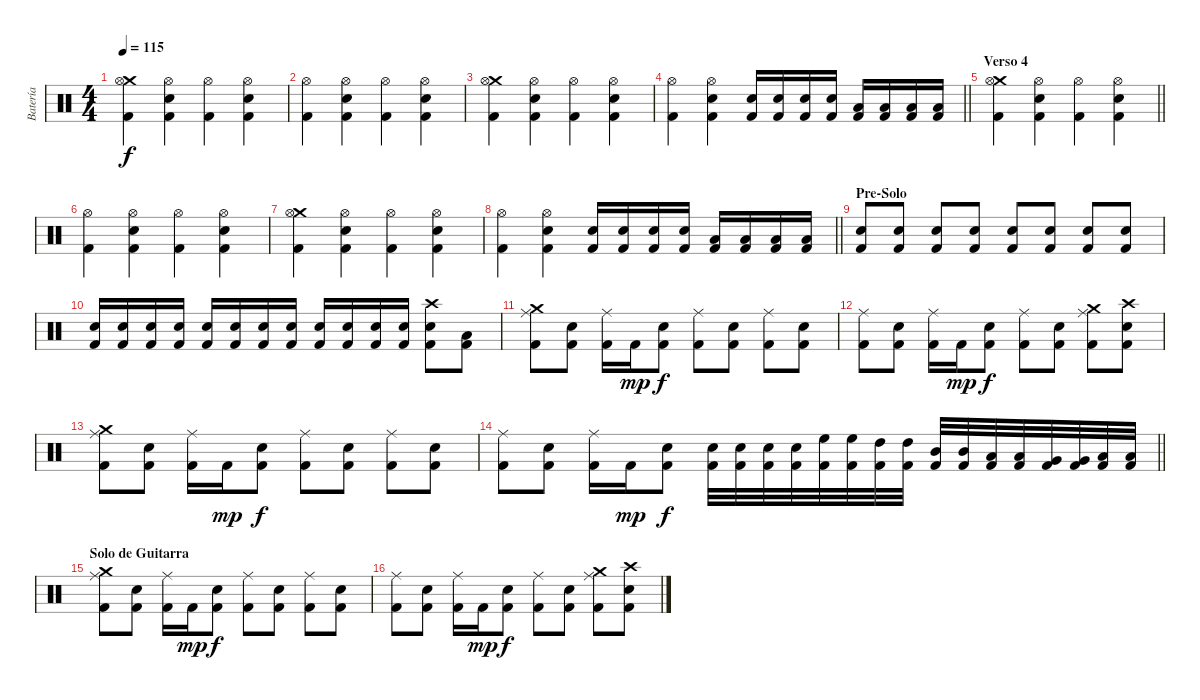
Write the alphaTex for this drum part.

\track ("Batería" "Batería") {instrument percussion}
\staff {score}
\articulation defaults
\ts (4 4)
\tempo 115
\clef neutral
\ks c
("Crash medium (hit)" "Hi-Hat (open)" "Kick (hit) 2").4{dy f} ("Hi-Hat (open)" "Snare (hit) 2" "Kick (hit) 2").4 ("Hi-Hat (open)" "Kick (hit) 2").4 ("Hi-Hat (open)" "Snare (hit) 2" "Kick (hit) 2").4 |
("Hi-Hat (open)" "Kick (hit) 2").4 ("Hi-Hat (open)" "Snare (hit) 2" "Kick (hit) 2").4 ("Hi-Hat (open)" "Kick (hit) 2").4 ("Hi-Hat (open)" "Snare (hit) 2" "Kick (hit) 2").4 |
("Crash medium (hit)" "Hi-Hat (open)" "Kick (hit) 2").4 ("Hi-Hat (open)" "Snare (hit) 2" "Kick (hit) 2").4 ("Hi-Hat (open)" "Kick (hit) 2").4 ("Hi-Hat (open)" "Snare (hit) 2" "Kick (hit) 2").4 |
\barLineRight lightlight
("Hi-Hat (open)" "Kick (hit) 2").4 ("Hi-Hat (open)" "Snare (hit) 2" "Kick (hit) 2").4 ("Snare (hit) 2" "Kick (hit) 2").16 ("Snare (hit) 2" "Kick (hit) 2").16 ("Snare (hit) 2" "Kick (hit) 2").16 ("Snare (hit) 2" "Kick (hit) 2").16 ("Low Tom (hit)" "Kick (hit) 2").16 ("Low Tom (hit)" "Kick (hit) 2").16 ("Low Tom (hit)" "Kick (hit) 2").16 ("Low Tom (hit)" "Kick (hit) 2").16 |
\section ("" "Verso 4")
\barLineRight lightlight
("Crash medium (hit)" "Hi-Hat (open)" "Kick (hit) 2").4 ("Hi-Hat (open)" "Snare (hit) 2" "Kick (hit) 2").4 ("Hi-Hat (open)" "Kick (hit) 2").4 ("Hi-Hat (open)" "Snare (hit) 2" "Kick (hit) 2").4 |
("Hi-Hat (open)" "Kick (hit) 2").4 ("Hi-Hat (open)" "Snare (hit) 2" "Kick (hit) 2").4 ("Hi-Hat (open)" "Kick (hit) 2").4 ("Hi-Hat (open)" "Snare (hit) 2" "Kick (hit) 2").4 |
("Crash medium (hit)" "Hi-Hat (open)" "Kick (hit) 2").4 ("Hi-Hat (open)" "Snare (hit) 2" "Kick (hit) 2").4 ("Hi-Hat (open)" "Kick (hit) 2").4 ("Hi-Hat (open)" "Snare (hit) 2" "Kick (hit) 2").4 |
\barLineRight lightlight
("Hi-Hat (open)" "Kick (hit) 2").4 ("Hi-Hat (open)" "Snare (hit) 2" "Kick (hit) 2").4 ("Snare (hit) 2" "Kick (hit) 2").16 ("Snare (hit) 2" "Kick (hit) 2").16 ("Snare (hit) 2" "Kick (hit) 2").16 ("Snare (hit) 2" "Kick (hit) 2").16 ("Low Tom (hit)" "Kick (hit) 2").16 ("Low Tom (hit)" "Kick (hit) 2").16 ("Low Tom (hit)" "Kick (hit) 2").16 ("Low Tom (hit)" "Kick (hit) 2").16 |
\section ("" "Pre-Solo")
("Snare (hit) 2" "Kick (hit) 2").8 ("Snare (hit) 2" "Kick (hit) 2").8 ("Snare (hit) 2" "Kick (hit) 2").8 ("Snare (hit) 2" "Kick (hit) 2").8 ("Snare (hit) 2" "Kick (hit) 2").8 ("Snare (hit) 2" "Kick (hit) 2").8 ("Snare (hit) 2" "Kick (hit) 2").8 ("Snare (hit) 2" "Kick (hit) 2").8 |
("Snare (hit) 2" "Kick (hit) 2").16 ("Snare (hit) 2" "Kick (hit) 2").16 ("Snare (hit) 2" "Kick (hit) 2").16 ("Snare (hit) 2" "Kick (hit) 2").16 ("Snare (hit) 2" "Kick (hit) 2").16 ("Snare (hit) 2" "Kick (hit) 2").16 ("Snare (hit) 2" "Kick (hit) 2").16 ("Snare (hit) 2" "Kick (hit) 2").16 ("Snare (hit) 2" "Kick (hit) 2").16 ("Snare (hit) 2" "Kick (hit) 2").16 ("Snare (hit) 2" "Kick (hit) 2").16 ("Snare (hit) 2" "Kick (hit) 2").16 ("Crash high (hit)" "Snare (hit) 2" "Kick (hit) 2").8 ("Low Tom (hit)" "Kick (hit) 2").8 |
("Ride (middle)" "Crash medium (hit)" "Kick (hit) 2").8 ("Snare (hit) 2" "Kick (hit) 2").8 ("Ride (middle)" "Kick (hit) 2").16 "Kick (hit) 2".16{dy mp} ("Snare (hit) 2" "Kick (hit) 2").8{dy f} ("Ride (middle)" "Kick (hit) 2").8 ("Snare (hit) 2" "Kick (hit) 2").8 ("Ride (middle)" "Kick (hit) 2").8 ("Snare (hit) 2" "Kick (hit) 2").8 |
("Ride (middle)" "Kick (hit) 2").8 ("Snare (hit) 2" "Kick (hit) 2").8 ("Ride (middle)" "Kick (hit) 2").16 "Kick (hit) 2".16{dy mp} ("Snare (hit) 2" "Kick (hit) 2").8{dy f} ("Ride (middle)" "Kick (hit) 2").8 ("Snare (hit) 2" "Kick (hit) 2").8 ("Crash medium (hit)" "Ride (middle)" "Kick (hit) 2").8 ("Crash high (hit)" "Snare (hit) 2" "Kick (hit) 2").8 |
("Ride (middle)" "Crash medium (hit)" "Kick (hit) 2").8 ("Snare (hit) 2" "Kick (hit) 2").8 ("Ride (middle)" "Kick (hit) 2").16 "Kick (hit) 2".16{dy mp} ("Snare (hit) 2" "Kick (hit) 2").8{dy f} ("Ride (middle)" "Kick (hit) 2").8 ("Snare (hit) 2" "Kick (hit) 2").8 ("Ride (middle)" "Kick (hit) 2").8 ("Snare (hit) 2" "Kick (hit) 2").8 |
\barLineRight lightlight
("Ride (middle)" "Kick (hit) 2").8 ("Snare (hit) 2" "Kick (hit) 2").8 ("Ride (middle)" "Kick (hit) 2").16 "Kick (hit) 2".16{dy mp} ("Snare (hit) 2" "Kick (hit) 2").8{dy f} ("Electric Snare (hit)" "Kick (hit) 2").32 ("Electric Snare (hit)" "Kick (hit) 2").32 ("Snare (hit) 2" "Kick (hit) 2").32 ("Snare (hit) 2" "Kick (hit) 2").32 ("High Floor Tom (hit)" "Kick (hit) 2").32 ("High Floor Tom (hit)" "Kick (hit) 2").32 ("High Tom (hit)" "Kick (hit) 2").32 ("High Tom (hit)" "Kick (hit) 2").32 ("Mid Tom (hit)" "Kick (hit) 2").32 ("Mid Tom (hit)" "Kick (hit) 2").32 ("Low Tom (hit)" "Kick (hit) 2").32 ("Low Tom (hit)" "Kick (hit) 2").32 ("Very Low Tom (hit)" "Kick (hit) 2").32 ("Very Low Tom (hit)" "Kick (hit) 2").32 ("Low Floor Tom (hit)" "Kick (hit) 2").32 ("Low Floor Tom (hit)" "Kick (hit) 2").32 |
\section ("" "Solo de Guitarra")
("Ride (middle)" "Crash medium (hit)" "Kick (hit) 2").8 ("Snare (hit) 2" "Kick (hit) 2").8 ("Ride (middle)" "Kick (hit) 2").16 "Kick (hit) 2".16{dy mp} ("Snare (hit) 2" "Kick (hit) 2").8{dy f} ("Ride (middle)" "Kick (hit) 2").8 ("Snare (hit) 2" "Kick (hit) 2").8 ("Ride (middle)" "Kick (hit) 2").8 ("Snare (hit) 2" "Kick (hit) 2").8 |
("Ride (middle)" "Kick (hit) 2").8 ("Snare (hit) 2" "Kick (hit) 2").8 ("Ride (middle)" "Kick (hit) 2").16 "Kick (hit) 2".16{dy mp} ("Snare (hit) 2" "Kick (hit) 2").8{dy f} ("Ride (middle)" "Kick (hit) 2").8 ("Snare (hit) 2" "Kick (hit) 2").8 ("Crash medium (hit)" "Ride (middle)" "Kick (hit) 2").8 ("Crash high (hit)" "Snare (hit) 2" "Kick (hit) 2").8
